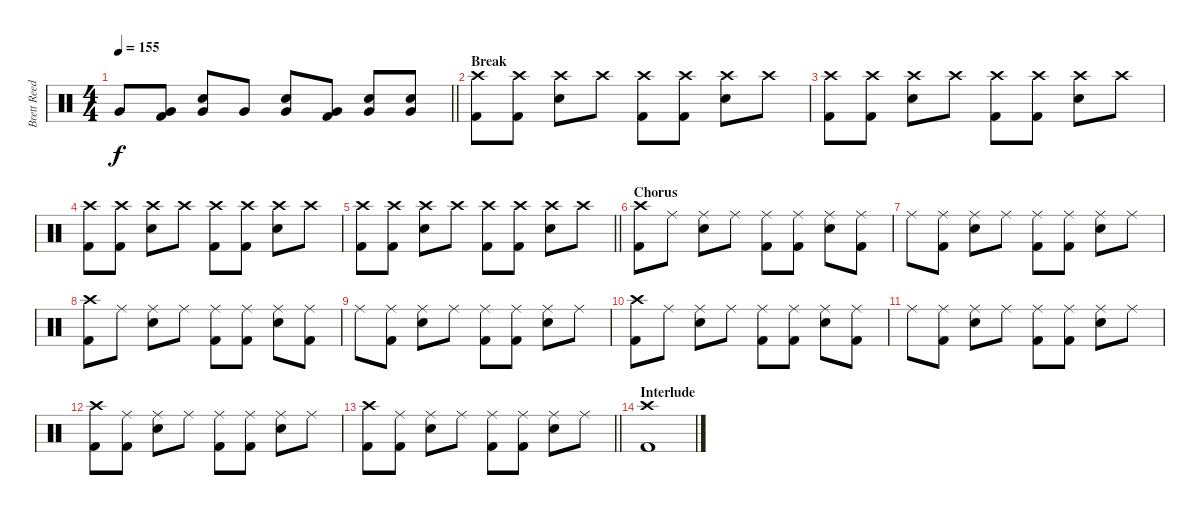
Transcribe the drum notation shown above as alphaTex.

\track ("Brett Reed" "Brett Reed") {instrument percussion}
\staff {score}
\articulation defaults
\ts (4 4)
\tempo 155
\clef neutral
\barLineRight lightlight
\ks c "Very Low Tom (hit)".8{dy f}
("Very Low Tom (hit)" "Kick (hit) 2").8 ("Very Low Tom (hit)" "Electric Snare (hit)").8 "Very Low Tom (hit)".8 ("Very Low Tom (hit)" "Electric Snare (hit)").8 ("Very Low Tom (hit)" "Kick (hit) 2").8 ("Very Low Tom (hit)" "Electric Snare (hit)").8 ("Very Low Tom (hit)" "Electric Snare (hit)").8 |
\section ("" "Break")
("Crash high (hit)" "Kick (hit) 2").8 ("Crash high (hit)" "Kick (hit) 2").8 ("Crash high (hit)" "Electric Snare (hit)").8 "Crash high (hit)".8 ("Crash high (hit)" "Kick (hit) 2").8 ("Crash high (hit)" "Kick (hit) 2").8 ("Crash high (hit)" "Electric Snare (hit)").8 "Crash high (hit)".8 |
("Crash high (hit)" "Kick (hit) 2").8 ("Crash high (hit)" "Kick (hit) 2").8 ("Crash high (hit)" "Electric Snare (hit)").8 "Crash high (hit)".8 ("Crash high (hit)" "Kick (hit) 2").8 ("Crash high (hit)" "Kick (hit) 2").8 ("Crash high (hit)" "Electric Snare (hit)").8 "Crash high (hit)".8 |
("Crash high (hit)" "Kick (hit) 2").8 ("Crash high (hit)" "Kick (hit) 2").8 ("Crash high (hit)" "Electric Snare (hit)").8 "Crash high (hit)".8 ("Crash high (hit)" "Kick (hit) 2").8 ("Crash high (hit)" "Kick (hit) 2").8 ("Crash high (hit)" "Electric Snare (hit)").8 "Crash high (hit)".8 |
\barLineRight lightlight
("Crash high (hit)" "Kick (hit) 2").8 ("Crash high (hit)" "Kick (hit) 2").8 ("Crash high (hit)" "Electric Snare (hit)").8 "Crash high (hit)".8 ("Crash high (hit)" "Kick (hit) 2").8 ("Crash high (hit)" "Kick (hit) 2").8 ("Crash high (hit)" "Electric Snare (hit)").8 "Crash high (hit)".8 |
\section ("" "Chorus")
("Crash high (hit)" "Kick (hit) 2").8 "Ride (middle)".8 ("Ride (middle)" "Electric Snare (hit)").8 "Ride (middle)".8 ("Ride (middle)" "Kick (hit) 2").8 ("Ride (middle)" "Kick (hit) 2").8 ("Ride (middle)" "Electric Snare (hit)").8 ("Ride (middle)" "Kick (hit) 2").8 |
"Ride (middle)".8 ("Ride (middle)" "Kick (hit) 2").8 ("Ride (middle)" "Electric Snare (hit)").8 "Ride (middle)".8 ("Ride (middle)" "Kick (hit) 2").8 ("Ride (middle)" "Kick (hit) 2").8 ("Ride (middle)" "Electric Snare (hit)").8 "Ride (middle)".8 |
("Crash high (hit)" "Kick (hit) 2").8 "Ride (middle)".8 ("Ride (middle)" "Electric Snare (hit)").8 "Ride (middle)".8 ("Ride (middle)" "Kick (hit) 2").8 ("Ride (middle)" "Kick (hit) 2").8 ("Ride (middle)" "Electric Snare (hit)").8 ("Ride (middle)" "Kick (hit) 2").8 |
"Ride (middle)".8 ("Ride (middle)" "Kick (hit) 2").8 ("Ride (middle)" "Electric Snare (hit)").8 "Ride (middle)".8 ("Ride (middle)" "Kick (hit) 2").8 ("Ride (middle)" "Kick (hit) 2").8 ("Ride (middle)" "Electric Snare (hit)").8 "Ride (middle)".8 |
("Crash high (hit)" "Kick (hit) 2").8 "Ride (middle)".8 ("Ride (middle)" "Electric Snare (hit)").8 "Ride (middle)".8 ("Ride (middle)" "Kick (hit) 2").8 ("Ride (middle)" "Kick (hit) 2").8 ("Ride (middle)" "Electric Snare (hit)").8 ("Ride (middle)" "Kick (hit) 2").8 |
"Ride (middle)".8 ("Ride (middle)" "Kick (hit) 2").8 ("Ride (middle)" "Electric Snare (hit)").8 "Ride (middle)".8 ("Ride (middle)" "Kick (hit) 2").8 ("Ride (middle)" "Kick (hit) 2").8 ("Ride (middle)" "Electric Snare (hit)").8 "Ride (middle)".8 |
("Crash high (hit)" "Kick (hit) 2").8 ("Ride (middle)" "Kick (hit) 2").8 ("Ride (middle)" "Electric Snare (hit)").8 "Ride (middle)".8 ("Ride (middle)" "Kick (hit) 2").8 ("Ride (middle)" "Kick (hit) 2").8 ("Ride (middle)" "Electric Snare (hit)").8 "Ride (middle)".8 |
\barLineRight lightlight
("Crash high (hit)" "Kick (hit) 2").8 ("Ride (middle)" "Kick (hit) 2").8 ("Ride (middle)" "Electric Snare (hit)").8 "Ride (middle)".8 ("Ride (middle)" "Kick (hit) 2").8 ("Ride (middle)" "Kick (hit) 2").8 ("Ride (middle)" "Electric Snare (hit)").8 "Ride (middle)".8 |
\section ("" "Interlude")
("Crash high (hit)" "Kick (hit) 2").1
